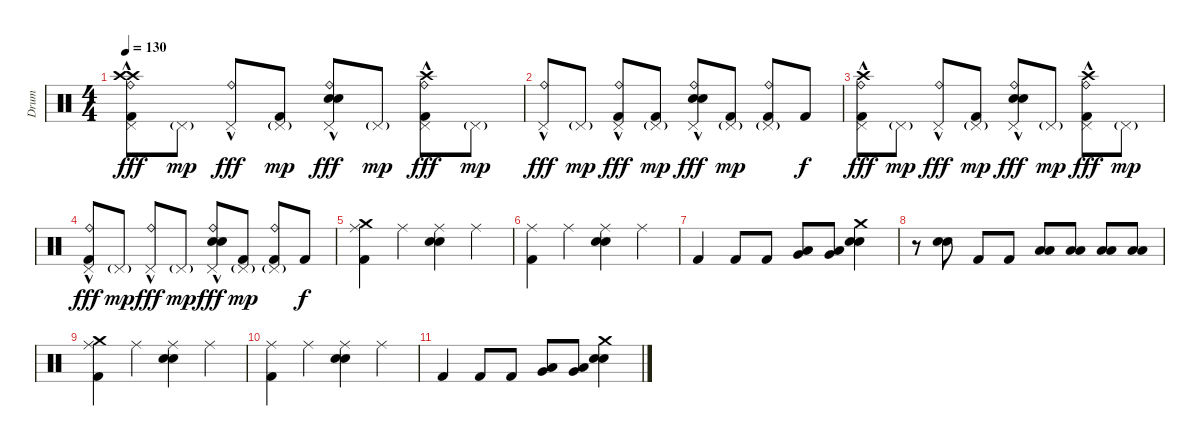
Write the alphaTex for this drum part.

\track ("Drum" "Drum") {instrument percussion}
\staff {score}
\articulation defaults
\ts (4 4)
\tempo 130
\clef neutral
\ks c
("Crash high (hit)" "Crash high (hit)" "Ride (bell)" "Kick (hit) 2" "Pedal Hi-Hat (hit)"{hac}).8{dy fff} "Pedal Hi-Hat (hit)"{g}.8{dy mp} ("Ride (bell)" "Pedal Hi-Hat (hit)"{hac}).8{dy fff} ("Kick (hit) 2" "Pedal Hi-Hat (hit)"{g}).8{dy mp} ("Electric Snare (hit)" "Electric Snare (hit)" "Ride (bell)" "Pedal Hi-Hat (hit)"{hac}).8{dy fff} "Pedal Hi-Hat (hit)"{g}.8{dy mp} ("Crash high (hit)" "Ride (bell)" "Kick (hit) 2" "Pedal Hi-Hat (hit)"{hac}).8{dy fff} "Pedal Hi-Hat (hit)"{g}.8{dy mp} |
("Ride (bell)" "Pedal Hi-Hat (hit)"{hac}).8{dy fff} "Pedal Hi-Hat (hit)"{g}.8{dy mp} ("Ride (bell)" "Kick (hit) 2" "Pedal Hi-Hat (hit)"{hac}).8{dy fff} ("Kick (hit) 2" "Pedal Hi-Hat (hit)"{g}).8{dy mp} ("Electric Snare (hit)" "Electric Snare (hit)" "Ride (bell)" "Pedal Hi-Hat (hit)"{hac}).8{dy fff} ("Kick (hit) 2" "Pedal Hi-Hat (hit)"{g}).8{dy mp} ("Ride (bell)" "Kick (hit) 2" "Pedal Hi-Hat (hit)"{g}).8 "Kick (hit) 2".8{dy f} |
("Crash high (hit)" "Ride (bell)" "Kick (hit) 2" "Pedal Hi-Hat (hit)"{hac}).8{dy fff} "Pedal Hi-Hat (hit)"{g}.8{dy mp} ("Ride (bell)" "Pedal Hi-Hat (hit)"{hac}).8{dy fff} ("Kick (hit) 2" "Pedal Hi-Hat (hit)"{g}).8{dy mp} ("Electric Snare (hit)" "Electric Snare (hit)" "Ride (bell)" "Pedal Hi-Hat (hit)"{hac}).8{dy fff} "Pedal Hi-Hat (hit)"{g}.8{dy mp} ("Crash high (hit)" "Ride (bell)" "Kick (hit) 2" "Pedal Hi-Hat (hit)"{hac}).8{dy fff} "Pedal Hi-Hat (hit)"{g}.8{dy mp} |
("Ride (bell)" "Kick (hit) 2" "Pedal Hi-Hat (hit)"{hac}).8{dy fff} "Pedal Hi-Hat (hit)"{g}.8{dy mp} ("Ride (bell)" "Pedal Hi-Hat (hit)"{hac}).8{dy fff} "Pedal Hi-Hat (hit)"{g}.8{dy mp} ("Electric Snare (hit)" "Electric Snare (hit)" "Ride (bell)" "Pedal Hi-Hat (hit)"{hac}).8{dy fff} ("Kick (hit) 2" "Pedal Hi-Hat (hit)"{g}).8{dy mp} ("Ride (bell)" "Kick (hit) 2" "Pedal Hi-Hat (hit)"{g}).8 "Kick (hit) 2".8{dy f} |
("Crash medium (hit)" "Kick (hit) 2" "Ride (middle)").4 "Ride (middle)".4 ("Electric Snare (hit)" "Electric Snare (hit)" "Ride (middle)").4 "Ride (middle)".4 |
("Kick (hit) 2" "Ride (middle)").4 "Ride (middle)".4 ("Electric Snare (hit)" "Electric Snare (hit)" "Ride (middle)").4 "Ride (middle)".4 |
"Kick (hit) 2".4 "Kick (hit) 2".8 "Kick (hit) 2".8 ("Low Floor Tom (hit)" "Very Low Tom (hit)").8 ("Low Floor Tom (hit)" "Very Low Tom (hit)").8 ("Crash medium (hit)" "Electric Snare (hit)" "Electric Snare (hit)").4 |
r.8 ("Electric Snare (hit)" "Electric Snare (hit)").8 "Kick (hit) 2".8 "Kick (hit) 2".8 ("Low Floor Tom (hit)" "Low Tom (hit)").8 ("Low Floor Tom (hit)" "Low Tom (hit)").8 ("Low Floor Tom (hit)" "Low Tom (hit)").8 ("Low Floor Tom (hit)" "Low Tom (hit)").8 |
("Crash medium (hit)" "Kick (hit) 2" "Ride (middle)").4 "Ride (middle)".4 ("Electric Snare (hit)" "Electric Snare (hit)" "Ride (middle)").4 "Ride (middle)".4 |
("Kick (hit) 2" "Ride (middle)").4 "Ride (middle)".4 ("Electric Snare (hit)" "Electric Snare (hit)" "Ride (middle)").4 "Ride (middle)".4 |
"Kick (hit) 2".4 "Kick (hit) 2".8 "Kick (hit) 2".8 ("Low Floor Tom (hit)" "Very Low Tom (hit)").8 ("Low Floor Tom (hit)" "Very Low Tom (hit)").8 ("Crash medium (hit)" "Electric Snare (hit)" "Electric Snare (hit)").4
